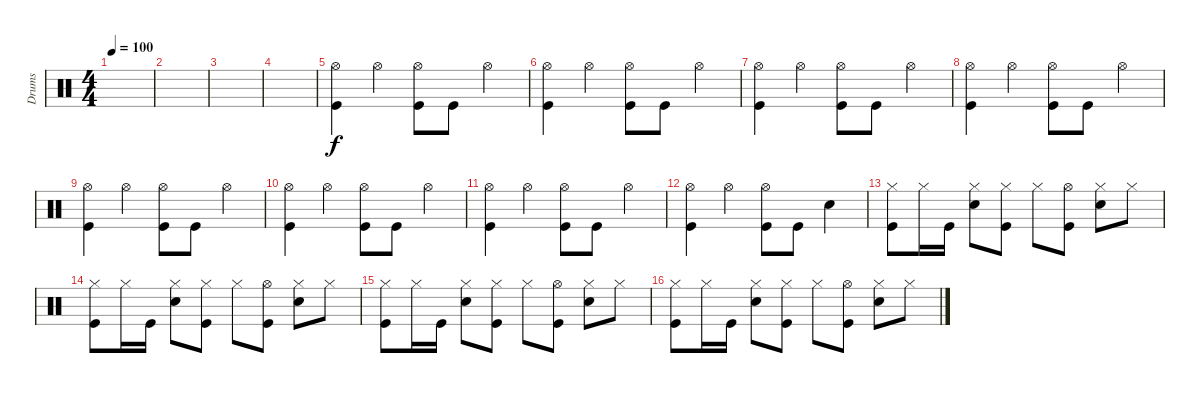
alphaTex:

\track ("Drums" "Drums") {instrument percussion}
\staff {score}
\articulation defaults
\ts (4 4)
\tempo 100
\clef neutral
\ks c
|
|
|
|
("Hi-Hat (open)" "Kick (hit)").4 "Hi-Hat (open)".4 ("Hi-Hat (open)" "Kick (hit)").8 "Kick (hit)".8 "Hi-Hat (open)".4 |
("Hi-Hat (open)" "Kick (hit)").4 "Hi-Hat (open)".4 ("Hi-Hat (open)" "Kick (hit)").8 "Kick (hit)".8 "Hi-Hat (open)".4 |
("Hi-Hat (open)" "Kick (hit)").4 "Hi-Hat (open)".4 ("Hi-Hat (open)" "Kick (hit)").8 "Kick (hit)".8 "Hi-Hat (open)".4 |
("Hi-Hat (open)" "Kick (hit)").4 "Hi-Hat (open)".4 ("Hi-Hat (open)" "Kick (hit)").8 "Kick (hit)".8 "Hi-Hat (open)".4 |
("Hi-Hat (open)" "Kick (hit)").4 "Hi-Hat (open)".4 ("Hi-Hat (open)" "Kick (hit)").8 "Kick (hit)".8 "Hi-Hat (open)".4 |
("Hi-Hat (open)" "Kick (hit)").4 "Hi-Hat (open)".4 ("Hi-Hat (open)" "Kick (hit)").8 "Kick (hit)".8 "Hi-Hat (open)".4 |
("Hi-Hat (open)" "Kick (hit)").4 "Hi-Hat (open)".4 ("Hi-Hat (open)" "Kick (hit)").8 "Kick (hit)".8 "Hi-Hat (open)".4 |
("Hi-Hat (open)" "Kick (hit)").4 "Hi-Hat (open)".4 ("Hi-Hat (open)" "Kick (hit)").8 "Kick (hit)".8 "Electric Snare (hit)".4 |
("Hi-Hat (closed)" "Kick (hit)").8 "Hi-Hat (closed)".16 "Kick (hit)".16 ("Hi-Hat (closed)" "Electric Snare (hit)").8 ("Hi-Hat (closed)" "Kick (hit)").8 "Hi-Hat (closed)".8 ("Hi-Hat (open)" "Kick (hit)").8 ("Hi-Hat (closed)" "Electric Snare (hit)").8 "Hi-Hat (closed)".8 |
("Hi-Hat (closed)" "Kick (hit)").8 "Hi-Hat (closed)".16 "Kick (hit)".16 ("Hi-Hat (closed)" "Electric Snare (hit)").8 ("Hi-Hat (closed)" "Kick (hit)").8 "Hi-Hat (closed)".8 ("Hi-Hat (open)" "Kick (hit)").8 ("Hi-Hat (closed)" "Electric Snare (hit)").8 "Hi-Hat (closed)".8 |
("Hi-Hat (closed)" "Kick (hit)").8 "Hi-Hat (closed)".16 "Kick (hit)".16 ("Hi-Hat (closed)" "Electric Snare (hit)").8 ("Hi-Hat (closed)" "Kick (hit)").8 "Hi-Hat (closed)".8 ("Hi-Hat (open)" "Kick (hit)").8 ("Hi-Hat (closed)" "Electric Snare (hit)").8 "Hi-Hat (closed)".8 |
("Hi-Hat (closed)" "Kick (hit)").8 "Hi-Hat (closed)".16 "Kick (hit)".16 ("Hi-Hat (closed)" "Electric Snare (hit)").8 ("Hi-Hat (closed)" "Kick (hit)").8 "Hi-Hat (closed)".8 ("Hi-Hat (open)" "Kick (hit)").8 ("Hi-Hat (closed)" "Electric Snare (hit)").8 "Hi-Hat (closed)".8
